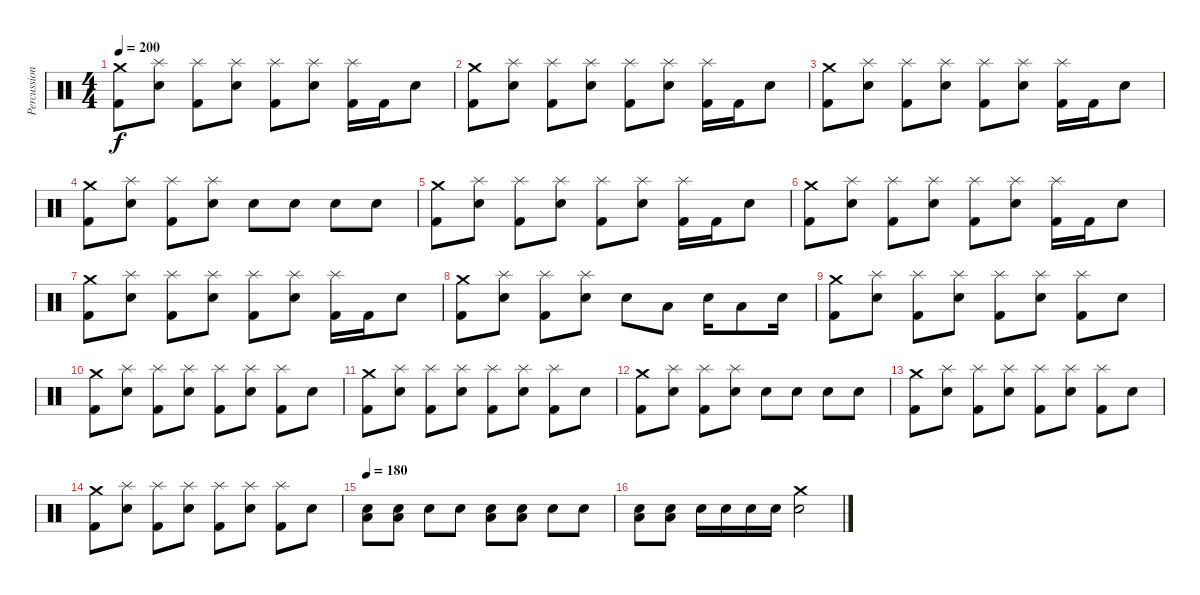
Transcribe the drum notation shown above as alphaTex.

\track ("Percussion" "Percussion") {instrument percussion}
\staff {score}
\articulation defaults
\ts (4 4)
\tempo 200
\clef neutral
\ks c
("Crash medium (hit)" "Kick (hit) 2").8{dy f} ("Splash (hit)" "Electric Snare (hit)").8 ("Splash (hit)" "Kick (hit) 2").8 ("Splash (hit)" "Electric Snare (hit)").8 ("Splash (hit)" "Kick (hit) 2").8 ("Splash (hit)" "Electric Snare (hit)").8 ("Splash (hit)" "Kick (hit) 2").16 "Kick (hit) 2".16 "Electric Snare (hit)".8 |
("Crash medium (hit)" "Kick (hit) 2").8 ("Splash (hit)" "Electric Snare (hit)").8 ("Splash (hit)" "Kick (hit) 2").8 ("Splash (hit)" "Electric Snare (hit)").8 ("Splash (hit)" "Kick (hit) 2").8 ("Splash (hit)" "Electric Snare (hit)").8 ("Splash (hit)" "Kick (hit) 2").16 "Kick (hit) 2".16 "Electric Snare (hit)".8 |
("Crash medium (hit)" "Kick (hit) 2").8 ("Splash (hit)" "Electric Snare (hit)").8 ("Splash (hit)" "Kick (hit) 2").8 ("Splash (hit)" "Electric Snare (hit)").8 ("Splash (hit)" "Kick (hit) 2").8 ("Splash (hit)" "Electric Snare (hit)").8 ("Splash (hit)" "Kick (hit) 2").16 "Kick (hit) 2".16 "Electric Snare (hit)".8 |
("Crash medium (hit)" "Kick (hit) 2").8 ("Splash (hit)" "Electric Snare (hit)").8 ("Splash (hit)" "Kick (hit) 2").8 ("Splash (hit)" "Electric Snare (hit)").8 "Electric Snare (hit)".8 "Electric Snare (hit)".8 "Electric Snare (hit)".8 "Electric Snare (hit)".8 |
("Crash medium (hit)" "Kick (hit) 2").8 ("Splash (hit)" "Electric Snare (hit)").8 ("Splash (hit)" "Kick (hit) 2").8 ("Splash (hit)" "Electric Snare (hit)").8 ("Splash (hit)" "Kick (hit) 2").8 ("Splash (hit)" "Electric Snare (hit)").8 ("Splash (hit)" "Kick (hit) 2").16 "Kick (hit) 2".16 "Electric Snare (hit)".8 |
("Crash medium (hit)" "Kick (hit) 2").8 ("Splash (hit)" "Electric Snare (hit)").8 ("Splash (hit)" "Kick (hit) 2").8 ("Splash (hit)" "Electric Snare (hit)").8 ("Splash (hit)" "Kick (hit) 2").8 ("Splash (hit)" "Electric Snare (hit)").8 ("Splash (hit)" "Kick (hit) 2").16 "Kick (hit) 2".16 "Electric Snare (hit)".8 |
("Crash medium (hit)" "Kick (hit) 2").8 ("Splash (hit)" "Electric Snare (hit)").8 ("Splash (hit)" "Kick (hit) 2").8 ("Splash (hit)" "Electric Snare (hit)").8 ("Splash (hit)" "Kick (hit) 2").8 ("Splash (hit)" "Electric Snare (hit)").8 ("Splash (hit)" "Kick (hit) 2").16 "Kick (hit) 2".16 "Electric Snare (hit)".8 |
("Crash medium (hit)" "Kick (hit) 2").8 ("Splash (hit)" "Electric Snare (hit)").8 ("Splash (hit)" "Kick (hit) 2").8 ("Splash (hit)" "Electric Snare (hit)").8 "Electric Snare (hit)".8 "Low Floor Tom (hit)".8 "Electric Snare (hit)".16 "Low Floor Tom (hit)".8 "Electric Snare (hit)".16 |
("Crash medium (hit)" "Kick (hit) 2").8 ("Splash (hit)" "Electric Snare (hit)").8 ("Splash (hit)" "Kick (hit) 2").8 ("Splash (hit)" "Electric Snare (hit)").8 ("Splash (hit)" "Kick (hit) 2").8 ("Splash (hit)" "Electric Snare (hit)").8 ("Splash (hit)" "Kick (hit) 2").8 "Electric Snare (hit)".8 |
("Crash medium (hit)" "Kick (hit) 2").8 ("Splash (hit)" "Electric Snare (hit)").8 ("Splash (hit)" "Kick (hit) 2").8 ("Splash (hit)" "Electric Snare (hit)").8 ("Splash (hit)" "Kick (hit) 2").8 ("Splash (hit)" "Electric Snare (hit)").8 ("Splash (hit)" "Kick (hit) 2").8 "Electric Snare (hit)".8 |
("Crash medium (hit)" "Kick (hit) 2").8 ("Splash (hit)" "Electric Snare (hit)").8 ("Splash (hit)" "Kick (hit) 2").8 ("Splash (hit)" "Electric Snare (hit)").8 ("Splash (hit)" "Kick (hit) 2").8 ("Splash (hit)" "Electric Snare (hit)").8 ("Splash (hit)" "Kick (hit) 2").8 "Electric Snare (hit)".8 |
("Crash medium (hit)" "Kick (hit) 2").8 ("Splash (hit)" "Electric Snare (hit)").8 ("Splash (hit)" "Kick (hit) 2").8 ("Splash (hit)" "Electric Snare (hit)").8 "Electric Snare (hit)".8 "Electric Snare (hit)".8 "Electric Snare (hit)".8 "Electric Snare (hit)".8 |
("Crash medium (hit)" "Kick (hit) 2").8 ("Splash (hit)" "Electric Snare (hit)").8 ("Splash (hit)" "Kick (hit) 2").8 ("Splash (hit)" "Electric Snare (hit)").8 ("Splash (hit)" "Kick (hit) 2").8 ("Splash (hit)" "Electric Snare (hit)").8 ("Splash (hit)" "Kick (hit) 2").8 "Electric Snare (hit)".8 |
("Crash medium (hit)" "Kick (hit) 2").8 ("Splash (hit)" "Electric Snare (hit)").8 ("Splash (hit)" "Kick (hit) 2").8 ("Splash (hit)" "Electric Snare (hit)").8 ("Splash (hit)" "Kick (hit) 2").8 ("Splash (hit)" "Electric Snare (hit)").8 ("Splash (hit)" "Kick (hit) 2").8 "Electric Snare (hit)".8 |
\tempo 180
("Low Floor Tom (hit)" "Electric Snare (hit)").8 ("Low Floor Tom (hit)" "Electric Snare (hit)").8 "Electric Snare (hit)".8 "Electric Snare (hit)".8 ("Low Floor Tom (hit)" "Electric Snare (hit)").8 ("Low Floor Tom (hit)" "Electric Snare (hit)").8 "Electric Snare (hit)".8 "Electric Snare (hit)".8 |
("Low Floor Tom (hit)" "Electric Snare (hit)").8 ("Low Floor Tom (hit)" "Electric Snare (hit)").8 "Electric Snare (hit)".16 "Electric Snare (hit)".16 "Electric Snare (hit)".16 "Electric Snare (hit)".16 ("Crash medium (hit)" "Electric Snare (hit)").2
